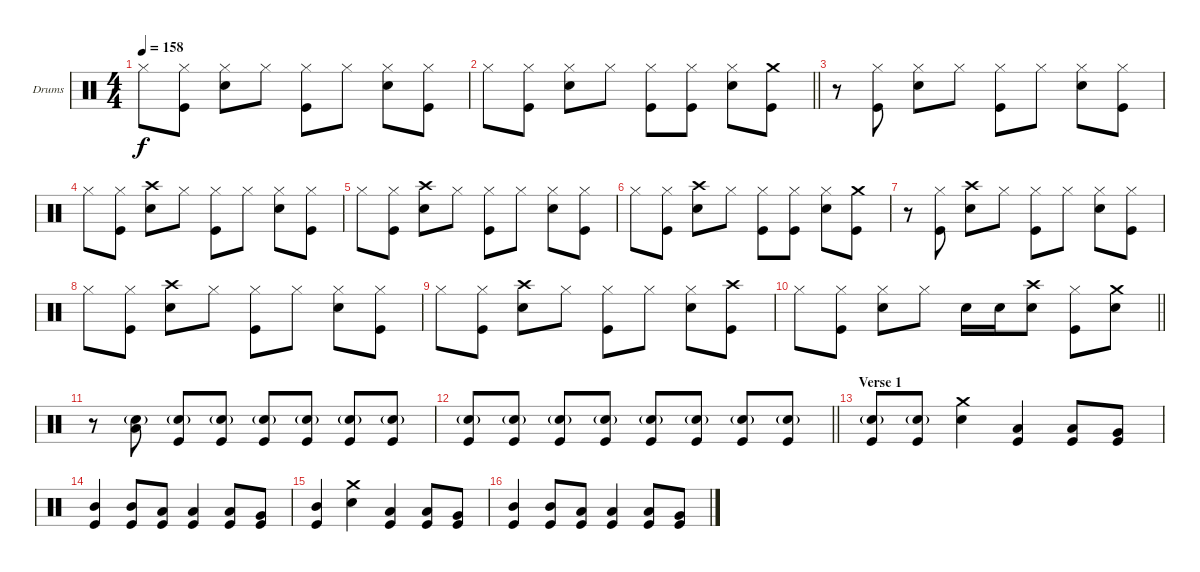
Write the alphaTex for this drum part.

\bracketExtendMode groupsimilarinstruments
\firstSystemTrackNameOrientation horizontal
\otherSystemsTrackNameOrientation horizontal
\track ("Drumkit" "Drums") {instrument percussion}
\staff {score}
\articulation defaults
\ts (4 4)
\tempo 158
\clef neutral
\ks c "Hi-Hat (closed)".8{dy f}
("Hi-Hat (closed)" "Kick (hit)").8 ("Hi-Hat (closed)" "Snare (hit) 2").8 "Hi-Hat (closed)".8 ("Hi-Hat (closed)" "Kick (hit)").8 "Hi-Hat (closed)".8 ("Hi-Hat (closed)" "Snare (hit) 2").8 ("Hi-Hat (closed)" "Kick (hit)").8 |
\barLineRight lightlight "Hi-Hat (closed)".8
("Hi-Hat (closed)" "Kick (hit)").8 ("Hi-Hat (closed)" "Snare (hit) 2").8 "Hi-Hat (closed)".8 ("Hi-Hat (closed)" "Kick (hit)").8 ("Hi-Hat (closed)" "Kick (hit)").8 ("Hi-Hat (closed)" "Snare (hit) 2").8 ("Crash medium (hit)" "Kick (hit)").8 |
\section ("" "")
r.8 ("Hi-Hat (closed)" "Kick (hit)").8 ("Hi-Hat (closed)" "Snare (hit) 2").8 "Hi-Hat (closed)".8 ("Hi-Hat (closed)" "Kick (hit)").8 "Hi-Hat (closed)".8 ("Hi-Hat (closed)" "Snare (hit) 2").8 ("Hi-Hat (closed)" "Kick (hit)").8 |
"Hi-Hat (closed)".8 ("Hi-Hat (closed)" "Kick (hit)").8 ("Crash high (hit)" "Snare (hit) 2").8 "Hi-Hat (closed)".8 ("Hi-Hat (closed)" "Kick (hit)").8 "Hi-Hat (closed)".8 ("Hi-Hat (closed)" "Snare (hit) 2").8 ("Hi-Hat (closed)" "Kick (hit)").8 |
"Hi-Hat (closed)".8 ("Hi-Hat (closed)" "Kick (hit)").8 ("Crash high (hit)" "Snare (hit) 2").8 "Hi-Hat (closed)".8 ("Hi-Hat (closed)" "Kick (hit)").8 "Hi-Hat (closed)".8 ("Hi-Hat (closed)" "Snare (hit) 2").8 ("Hi-Hat (closed)" "Kick (hit)").8 |
"Hi-Hat (closed)".8 ("Hi-Hat (closed)" "Kick (hit)").8 ("Crash high (hit)" "Snare (hit) 2").8 "Hi-Hat (closed)".8 ("Hi-Hat (closed)" "Kick (hit)").8 ("Hi-Hat (closed)" "Kick (hit)").8 ("Hi-Hat (closed)" "Snare (hit) 2").8 ("Crash medium (hit)" "Kick (hit)").8 |
r.8 ("Hi-Hat (closed)" "Kick (hit)").8 ("Crash high (hit)" "Snare (hit) 2").8 "Hi-Hat (closed)".8 ("Hi-Hat (closed)" "Kick (hit)").8 "Hi-Hat (closed)".8 ("Hi-Hat (closed)" "Snare (hit) 2").8 ("Hi-Hat (closed)" "Kick (hit)").8 |
"Hi-Hat (closed)".8 ("Hi-Hat (closed)" "Kick (hit)").8 ("Crash high (hit)" "Snare (hit) 2").8 "Hi-Hat (closed)".8 ("Hi-Hat (closed)" "Kick (hit)").8 "Hi-Hat (closed)".8 ("Hi-Hat (closed)" "Snare (hit) 2").8 ("Hi-Hat (closed)" "Kick (hit)").8 |
"Hi-Hat (closed)".8 ("Hi-Hat (closed)" "Kick (hit)").8 ("Crash high (hit)" "Snare (hit) 2").8 "Hi-Hat (closed)".8 ("Hi-Hat (closed)" "Kick (hit)").8 "Hi-Hat (closed)".8 ("Hi-Hat (closed)" "Snare (hit) 2").8 ("Crash high (hit)" "Kick (hit)").8 |
\barLineRight lightlight "Hi-Hat (closed)".8
("Hi-Hat (closed)" "Kick (hit)").8 ("Hi-Hat (closed)" "Snare (hit) 2").8 "Hi-Hat (closed)".8 "Snare (hit) 2".16 "Snare (hit) 2".16 ("Crash high (hit)" "Snare (hit) 2").8 ("Hi-Hat (closed)" "Kick (hit)").8 ("Crash medium (hit)" "Snare (hit) 2").8 |
\section ("" "")
r.8 ("Snare (hit) 2"{g} "Low Tom (hit)").8 ("Snare (hit) 2"{g} "Kick (hit)").8 ("Snare (hit) 2"{g} "Kick (hit)").8 ("Snare (hit) 2"{g} "Kick (hit)").8 ("Snare (hit) 2"{g} "Kick (hit)").8 ("Snare (hit) 2"{g} "Kick (hit)").8 ("Snare (hit) 2"{g} "Kick (hit)").8 |
\barLineRight lightlight
("Snare (hit) 2"{g} "Kick (hit)").8 ("Snare (hit) 2"{g} "Kick (hit)").8 ("Snare (hit) 2"{g} "Kick (hit)").8 ("Snare (hit) 2"{g} "Kick (hit)").8 ("Snare (hit) 2"{g} "Kick (hit)").8 ("Snare (hit) 2"{g} "Kick (hit)").8 ("Snare (hit) 2"{g} "Kick (hit)").8 ("Snare (hit) 2"{g} "Kick (hit)").8 |
\section ("" "Verse 1")
("Snare (hit) 2"{g} "Kick (hit)").8 ("Snare (hit) 2"{g} "Kick (hit)").8 ("Crash medium (hit)" "Snare (hit) 2").4 ("Kick (hit)" "Low Tom (hit)").4 ("Kick (hit)" "Low Tom (hit)").8 ("Kick (hit)" "Very Low Tom (hit)").8 |
("Kick (hit)" "Mid Tom (hit)").4 ("Kick (hit)" "Mid Tom (hit)").8 ("Kick (hit)" "Low Tom (hit)").8 ("Kick (hit)" "Low Tom (hit)").4 ("Kick (hit)" "Low Tom (hit)").8 ("Kick (hit)" "Very Low Tom (hit)").8 |
("Kick (hit)" "Mid Tom (hit)").4 ("Crash medium (hit)" "Snare (hit) 2").4 ("Kick (hit)" "Low Tom (hit)").4 ("Kick (hit)" "Low Tom (hit)").8 ("Kick (hit)" "Very Low Tom (hit)").8 |
("Kick (hit)" "Mid Tom (hit)").4 ("Kick (hit)" "Mid Tom (hit)").8 ("Kick (hit)" "Low Tom (hit)").8 ("Kick (hit)" "Low Tom (hit)").4 ("Kick (hit)" "Low Tom (hit)").8 ("Kick (hit)" "Very Low Tom (hit)").8
